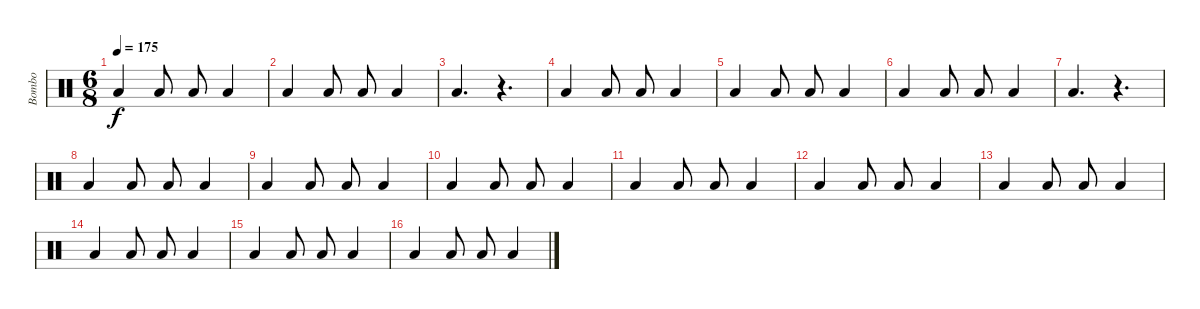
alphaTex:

\track ("Bombo" "Bombo") {instrument percussion}
\staff {score}
\articulation defaults
\ts (6 8)
\tempo 175
\clef neutral
\ks c "Low Floor Tom (hit)".4{dy f} "Low Floor Tom (hit)".8 "Low Floor Tom (hit)".8 "Low Floor Tom (hit)".4
|
"Low Floor Tom (hit)".4 "Low Floor Tom (hit)".8 "Low Floor Tom (hit)".8 "Low Floor Tom (hit)".4 |
"Low Floor Tom (hit)".4{d} r.4{d} |
"Low Floor Tom (hit)".4 "Low Floor Tom (hit)".8 "Low Floor Tom (hit)".8 "Low Floor Tom (hit)".4 |
"Low Floor Tom (hit)".4 "Low Floor Tom (hit)".8 "Low Floor Tom (hit)".8 "Low Floor Tom (hit)".4 |
"Low Floor Tom (hit)".4 "Low Floor Tom (hit)".8 "Low Floor Tom (hit)".8 "Low Floor Tom (hit)".4 |
"Low Floor Tom (hit)".4{d} r.4{d} |
"Low Floor Tom (hit)".4 "Low Floor Tom (hit)".8 "Low Floor Tom (hit)".8 "Low Floor Tom (hit)".4 |
"Low Floor Tom (hit)".4 "Low Floor Tom (hit)".8 "Low Floor Tom (hit)".8 "Low Floor Tom (hit)".4 |
"Low Floor Tom (hit)".4 "Low Floor Tom (hit)".8 "Low Floor Tom (hit)".8 "Low Floor Tom (hit)".4 |
"Low Floor Tom (hit)".4 "Low Floor Tom (hit)".8 "Low Floor Tom (hit)".8 "Low Floor Tom (hit)".4 |
"Low Floor Tom (hit)".4 "Low Floor Tom (hit)".8 "Low Floor Tom (hit)".8 "Low Floor Tom (hit)".4 |
"Low Floor Tom (hit)".4 "Low Floor Tom (hit)".8 "Low Floor Tom (hit)".8 "Low Floor Tom (hit)".4 |
"Low Floor Tom (hit)".4 "Low Floor Tom (hit)".8 "Low Floor Tom (hit)".8 "Low Floor Tom (hit)".4 |
"Low Floor Tom (hit)".4 "Low Floor Tom (hit)".8 "Low Floor Tom (hit)".8 "Low Floor Tom (hit)".4 |
"Low Floor Tom (hit)".4 "Low Floor Tom (hit)".8 "Low Floor Tom (hit)".8 "Low Floor Tom (hit)".4
